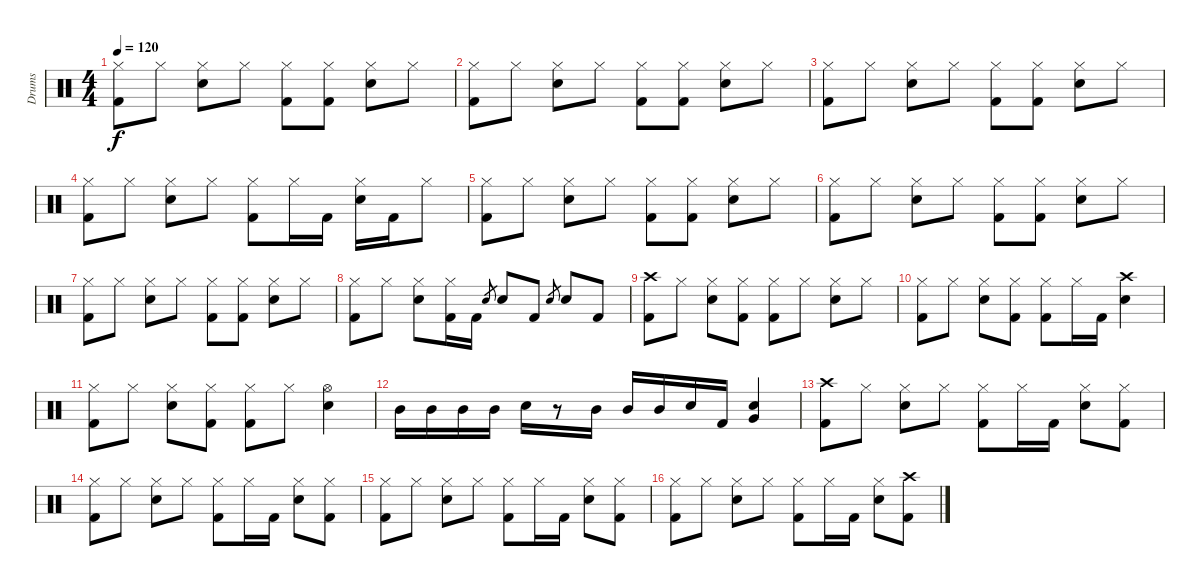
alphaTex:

\track ("Drums" "Drums") {instrument percussion}
\staff {score}
\articulation defaults
\ts (4 4)
\tempo 120
\clef neutral
\ks c
("Hi-Hat (closed)" "Kick (hit) 2").8{dy f} "Hi-Hat (closed)".8 ("Hi-Hat (closed)" "Electric Snare (hit)").8 "Hi-Hat (closed)".8 ("Hi-Hat (closed)" "Kick (hit) 2").8 ("Hi-Hat (closed)" "Kick (hit) 2").8 ("Hi-Hat (closed)" "Electric Snare (hit)").8 "Hi-Hat (closed)".8 |
("Hi-Hat (closed)" "Kick (hit) 2").8 "Hi-Hat (closed)".8 ("Hi-Hat (closed)" "Electric Snare (hit)").8 "Hi-Hat (closed)".8 ("Hi-Hat (closed)" "Kick (hit) 2").8 ("Hi-Hat (closed)" "Kick (hit) 2").8 ("Hi-Hat (closed)" "Electric Snare (hit)").8 "Hi-Hat (closed)".8 |
("Hi-Hat (closed)" "Kick (hit) 2").8 "Hi-Hat (closed)".8 ("Hi-Hat (closed)" "Electric Snare (hit)").8 "Hi-Hat (closed)".8 ("Hi-Hat (closed)" "Kick (hit) 2").8 ("Hi-Hat (closed)" "Kick (hit) 2").8 ("Hi-Hat (closed)" "Electric Snare (hit)").8 "Hi-Hat (closed)".8 |
("Hi-Hat (closed)" "Kick (hit) 2").8 "Hi-Hat (closed)".8 ("Hi-Hat (closed)" "Electric Snare (hit)").8 "Hi-Hat (closed)".8 ("Hi-Hat (closed)" "Kick (hit) 2").8 "Hi-Hat (closed)".16 "Kick (hit) 2".16 ("Hi-Hat (closed)" "Electric Snare (hit)").16 "Kick (hit) 2".16 "Hi-Hat (closed)".8 |
("Hi-Hat (closed)" "Kick (hit) 2").8 "Hi-Hat (closed)".8 ("Hi-Hat (closed)" "Electric Snare (hit)").8 "Hi-Hat (closed)".8 ("Hi-Hat (closed)" "Kick (hit) 2").8 ("Hi-Hat (closed)" "Kick (hit) 2").8 ("Hi-Hat (closed)" "Electric Snare (hit)").8 "Hi-Hat (closed)".8 |
("Hi-Hat (closed)" "Kick (hit) 2").8 "Hi-Hat (closed)".8 ("Hi-Hat (closed)" "Electric Snare (hit)").8 "Hi-Hat (closed)".8 ("Hi-Hat (closed)" "Kick (hit) 2").8 ("Hi-Hat (closed)" "Kick (hit) 2").8 ("Hi-Hat (closed)" "Electric Snare (hit)").8 "Hi-Hat (closed)".8 |
("Hi-Hat (closed)" "Kick (hit) 2").8 "Hi-Hat (closed)".8 ("Hi-Hat (closed)" "Electric Snare (hit)").8 "Hi-Hat (closed)".8 ("Hi-Hat (closed)" "Kick (hit) 2").8 ("Hi-Hat (closed)" "Kick (hit) 2").8 ("Hi-Hat (closed)" "Electric Snare (hit)").8 "Hi-Hat (closed)".8 |
("Hi-Hat (closed)" "Kick (hit) 2").8 "Hi-Hat (closed)".8 ("Hi-Hat (closed)" "Electric Snare (hit)").8 ("Hi-Hat (closed)" "Kick (hit) 2").16 "Kick (hit) 2".16 "Electric Snare (hit)".8{gr} "Electric Snare (hit)".8 "Kick (hit) 2".8 "Electric Snare (hit)".8{gr} "Electric Snare (hit)".8 "Kick (hit) 2".8 |
("Crash high (hit)" "Kick (hit) 2").8 "Hi-Hat (closed)".8 ("Hi-Hat (closed)" "Electric Snare (hit)").8 ("Hi-Hat (closed)" "Kick (hit) 2").8 ("Hi-Hat (closed)" "Kick (hit) 2").8 "Hi-Hat (closed)".8 ("Hi-Hat (closed)" "Electric Snare (hit)").8 "Hi-Hat (closed)".8 |
("Hi-Hat (closed)" "Kick (hit) 2").8 "Hi-Hat (closed)".8 ("Hi-Hat (closed)" "Electric Snare (hit)").8 ("Hi-Hat (closed)" "Kick (hit) 2").8 ("Hi-Hat (closed)" "Kick (hit) 2").8 "Hi-Hat (closed)".16 "Kick (hit) 2".16 ("Crash high (hit)" "Electric Snare (hit)").4 |
("Hi-Hat (closed)" "Kick (hit) 2").8 "Hi-Hat (closed)".8 ("Hi-Hat (closed)" "Electric Snare (hit)").8 ("Hi-Hat (closed)" "Kick (hit) 2").8 ("Hi-Hat (closed)" "Kick (hit) 2").8 "Hi-Hat (closed)".8 ("Hi-Hat (open)" "Electric Snare (hit)").4 |
"Mid Tom (hit)".16 "Mid Tom (hit)".16 "Mid Tom (hit)".16 "Mid Tom (hit)".16 "Electric Snare (hit)".16 r.8 "Mid Tom (hit)".16 "Mid Tom (hit)".16 "Mid Tom (hit)".16 "Electric Snare (hit)".16 "Kick (hit) 2".16 ("Electric Snare (hit)" "Very Low Tom (hit)").4 |
("Crash high (hit)" "Kick (hit) 2").8 "Hi-Hat (closed)".8 ("Hi-Hat (closed)" "Electric Snare (hit)").8 "Hi-Hat (closed)".8 ("Hi-Hat (closed)" "Kick (hit) 2").8 "Hi-Hat (closed)".16 "Kick (hit) 2".16 ("Hi-Hat (closed)" "Electric Snare (hit)").8 ("Hi-Hat (closed)" "Kick (hit) 2").8 |
("Hi-Hat (closed)" "Kick (hit) 2").8 "Hi-Hat (closed)".8 ("Hi-Hat (closed)" "Electric Snare (hit)").8 "Hi-Hat (closed)".8 ("Hi-Hat (closed)" "Kick (hit) 2").8 "Hi-Hat (closed)".16 "Kick (hit) 2".16 ("Hi-Hat (closed)" "Electric Snare (hit)").8 ("Hi-Hat (closed)" "Kick (hit) 2").8 |
("Hi-Hat (closed)" "Kick (hit) 2").8 "Hi-Hat (closed)".8 ("Hi-Hat (closed)" "Electric Snare (hit)").8 "Hi-Hat (closed)".8 ("Hi-Hat (closed)" "Kick (hit) 2").8 "Hi-Hat (closed)".16 "Kick (hit) 2".16 ("Hi-Hat (closed)" "Electric Snare (hit)").8 ("Hi-Hat (closed)" "Kick (hit) 2").8 |
("Hi-Hat (closed)" "Kick (hit) 2").8 "Hi-Hat (closed)".8 ("Hi-Hat (closed)" "Electric Snare (hit)").8 "Hi-Hat (closed)".8 ("Hi-Hat (closed)" "Kick (hit) 2").8 "Hi-Hat (closed)".16 "Kick (hit) 2".16 ("Hi-Hat (closed)" "Electric Snare (hit)").8 ("Crash high (hit)" "Kick (hit) 2").8
